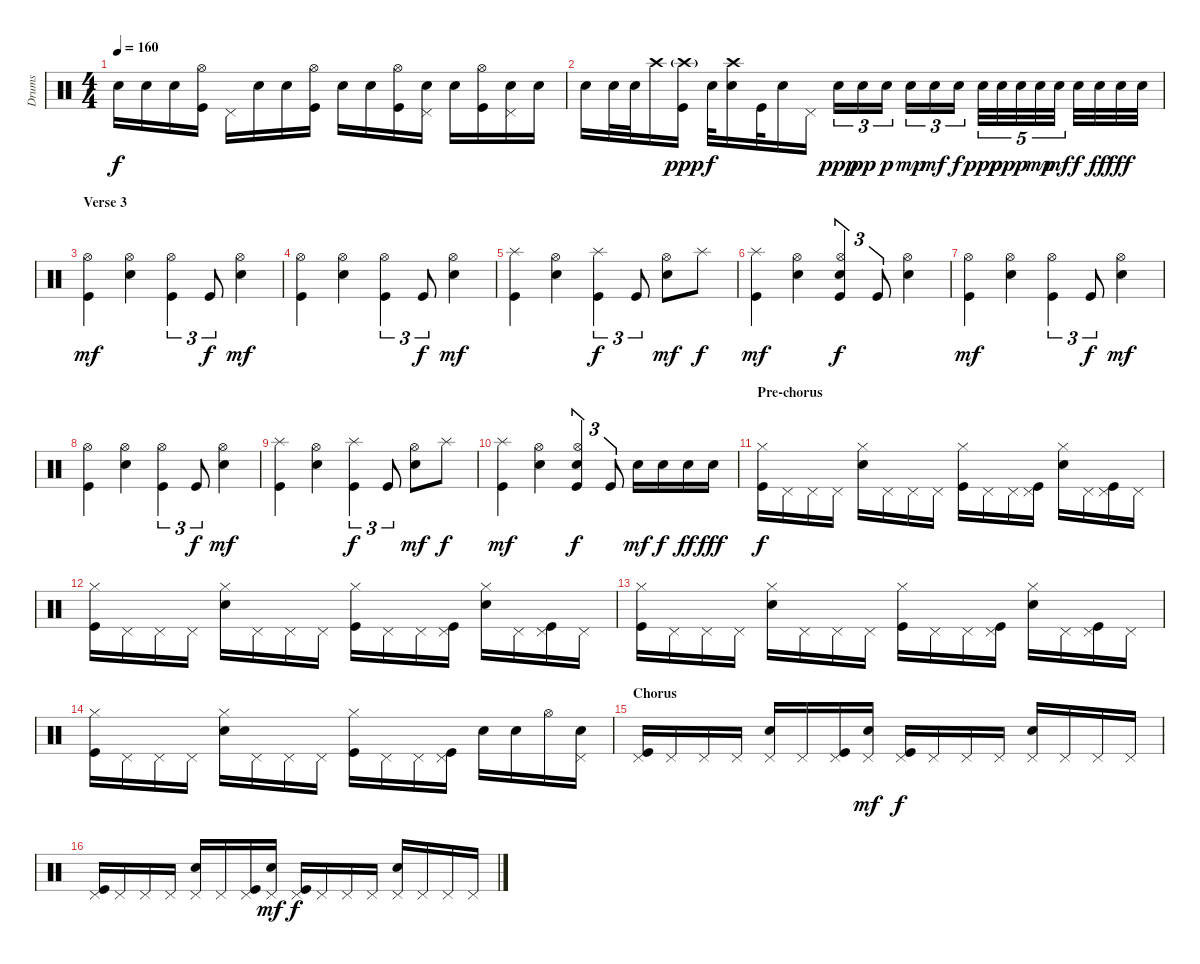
\track ("Drums" "Drums") {instrument percussion}
\staff {score}
\articulation defaults
\ts (4 4)
\tempo 160
\clef neutral
\ks c "Electric Snare (hit)".16{dy f} "Electric Snare (hit)".16 "Electric Snare (hit)".16
("Hi-Hat (open)" "Kick (hit)").16 "Pedal Hi-Hat (hit)".16 "Electric Snare (hit)".16 "Electric Snare (hit)".16 ("Hi-Hat (open)" "Kick (hit)").16 "Electric Snare (hit)".16 "Electric Snare (hit)".16 ("Hi-Hat (open)" "Kick (hit)").16 ("Pedal Hi-Hat (hit)" "Electric Snare (hit)").16 "Electric Snare (hit)".16 ("Hi-Hat (open)" "Kick (hit)").16 ("Pedal Hi-Hat (hit)" "Electric Snare (hit)").16 "Electric Snare (hit)".16 |
"Electric Snare (hit)".16 "Electric Snare (hit)".32 "Electric Snare (hit)".32 "Crash high (hit)".16 ("Crash high (hit)"{g} "Kick (hit)").16{dy ppp} "Electric Snare (hit)".32{dy f} ("Crash high (hit)" "Electric Snare (hit)").16 "Kick (hit)".32 "Electric Snare (hit)".16 "Pedal Hi-Hat (hit)".16 "Electric Snare (hit)".16{tu (3 2) dy ppp} "Electric Snare (hit)".16{tu (3 2) dy pp} "Electric Snare (hit)".16{tu (3 2) dy p} "Electric Snare (hit)".16{tu (3 2) dy mp} "Electric Snare (hit)".16{tu (3 2) dy mf} "Electric Snare (hit)".16{tu (3 2) dy f} "Electric Snare (hit)".32{tu (5 4) dy ppp} "Electric Snare (hit)".32{tu (5 4) dy pp} "Electric Snare (hit)".32{tu (5 4) dy p} "Electric Snare (hit)".32{tu (5 4) dy mp} "Electric Snare (hit)".32{tu (5 4) dy mf} "Electric Snare (hit)".32{dy f} "Electric Snare (hit)".32{dy ff} "Electric Snare (hit)".32{dy fff} "Electric Snare (hit)".32 |
\section ("" "Verse 3")
("Hi-Hat (open)" "Kick (hit)").4{dy mf} ("Hi-Hat (open)" "Electric Snare (hit)").4 ("Hi-Hat (open)" "Kick (hit)").4{tu (3 2)} "Kick (hit)".8{tu (3 2) dy f} ("Hi-Hat (open)" "Electric Snare (hit)").4{dy mf} |
("Hi-Hat (open)" "Kick (hit)").4 ("Hi-Hat (open)" "Electric Snare (hit)").4 ("Hi-Hat (open)" "Kick (hit)").4{tu (3 2)} "Kick (hit)".8{tu (3 2) dy f} ("Hi-Hat (open)" "Electric Snare (hit)").4{dy mf} |
("Splash (hit)" "Kick (hit)").4 ("Hi-Hat (open)" "Electric Snare (hit)").4 ("Splash (hit)" "Kick (hit)").4{tu (3 2) dy f} "Kick (hit)".8{tu (3 2)} ("Hi-Hat (open)" "Electric Snare (hit)").8{dy mf} "Splash (hit)".8{dy f} |
("Splash (hit)" "Kick (hit)").4{dy mf} ("Hi-Hat (open)" "Electric Snare (hit)").4 ("Hi-Hat (open)" "Electric Snare (hit)" "Kick (hit)").4{tu (3 2) dy f} "Kick (hit)".8{tu (3 2)} ("Hi-Hat (open)" "Electric Snare (hit)").4 |
("Hi-Hat (open)" "Kick (hit)").4{dy mf} ("Hi-Hat (open)" "Electric Snare (hit)").4 ("Hi-Hat (open)" "Kick (hit)").4{tu (3 2)} "Kick (hit)".8{tu (3 2) dy f} ("Hi-Hat (open)" "Electric Snare (hit)").4{dy mf} |
("Hi-Hat (open)" "Kick (hit)").4 ("Hi-Hat (open)" "Electric Snare (hit)").4 ("Hi-Hat (open)" "Kick (hit)").4{tu (3 2)} "Kick (hit)".8{tu (3 2) dy f} ("Hi-Hat (open)" "Electric Snare (hit)").4{dy mf} |
("Splash (hit)" "Kick (hit)").4 ("Hi-Hat (open)" "Electric Snare (hit)").4 ("Splash (hit)" "Kick (hit)").4{tu (3 2) dy f} "Kick (hit)".8{tu (3 2)} ("Hi-Hat (open)" "Electric Snare (hit)").8{dy mf} "Splash (hit)".8{dy f} |
("Splash (hit)" "Kick (hit)").4{dy mf} ("Hi-Hat (open)" "Electric Snare (hit)").4 ("Hi-Hat (open)" "Electric Snare (hit)" "Kick (hit)").4{tu (3 2) dy f} "Kick (hit)".8{tu (3 2)} "Electric Snare (hit)".16{dy mf} "Electric Snare (hit)".16{dy f} "Electric Snare (hit)".16{dy ff} "Electric Snare (hit)".16{dy fff} |
\section ("" "Pre-chorus")
("Hi-Hat (closed)" "Kick (hit)").16{dy f} "Pedal Hi-Hat (hit)".16 "Pedal Hi-Hat (hit)".16 "Pedal Hi-Hat (hit)".16 ("Hi-Hat (closed)" "Electric Snare (hit)").16 "Pedal Hi-Hat (hit)".16 "Pedal Hi-Hat (hit)".16 "Pedal Hi-Hat (hit)".16 ("Hi-Hat (closed)" "Kick (hit)").16 "Pedal Hi-Hat (hit)".16 "Pedal Hi-Hat (hit)".16 ("Pedal Hi-Hat (hit)" "Kick (hit)").16 ("Hi-Hat (closed)" "Electric Snare (hit)").16 "Pedal Hi-Hat (hit)".16 ("Pedal Hi-Hat (hit)" "Kick (hit)").16 "Pedal Hi-Hat (hit)".16 |
("Hi-Hat (closed)" "Kick (hit)").16 "Pedal Hi-Hat (hit)".16 "Pedal Hi-Hat (hit)".16 "Pedal Hi-Hat (hit)".16 ("Hi-Hat (closed)" "Electric Snare (hit)").16 "Pedal Hi-Hat (hit)".16 "Pedal Hi-Hat (hit)".16 "Pedal Hi-Hat (hit)".16 ("Hi-Hat (closed)" "Kick (hit)").16 "Pedal Hi-Hat (hit)".16 "Pedal Hi-Hat (hit)".16 ("Pedal Hi-Hat (hit)" "Kick (hit)").16 ("Hi-Hat (closed)" "Electric Snare (hit)").16 "Pedal Hi-Hat (hit)".16 ("Pedal Hi-Hat (hit)" "Kick (hit)").16 "Pedal Hi-Hat (hit)".16 |
("Hi-Hat (closed)" "Kick (hit)").16 "Pedal Hi-Hat (hit)".16 "Pedal Hi-Hat (hit)".16 "Pedal Hi-Hat (hit)".16 ("Hi-Hat (closed)" "Electric Snare (hit)").16 "Pedal Hi-Hat (hit)".16 "Pedal Hi-Hat (hit)".16 "Pedal Hi-Hat (hit)".16 ("Hi-Hat (closed)" "Kick (hit)").16 "Pedal Hi-Hat (hit)".16 "Pedal Hi-Hat (hit)".16 ("Pedal Hi-Hat (hit)" "Kick (hit)").16 ("Hi-Hat (closed)" "Electric Snare (hit)").16 "Pedal Hi-Hat (hit)".16 ("Pedal Hi-Hat (hit)" "Kick (hit)").16 "Pedal Hi-Hat (hit)".16 |
("Hi-Hat (closed)" "Kick (hit)").16 "Pedal Hi-Hat (hit)".16 "Pedal Hi-Hat (hit)".16 "Pedal Hi-Hat (hit)".16 ("Hi-Hat (closed)" "Electric Snare (hit)").16 "Pedal Hi-Hat (hit)".16 "Pedal Hi-Hat (hit)".16 "Pedal Hi-Hat (hit)".16 ("Hi-Hat (closed)" "Kick (hit)").16 "Pedal Hi-Hat (hit)".16 "Pedal Hi-Hat (hit)".16 ("Pedal Hi-Hat (hit)" "Kick (hit)").16 "Electric Snare (hit)".16 "Electric Snare (hit)".16 "Hi-Hat (open)".16 ("Pedal Hi-Hat (hit)" "Electric Snare (hit)").16 |
\section ("" "Chorus")
("Pedal Hi-Hat (hit)" "Kick (hit)").16 "Pedal Hi-Hat (hit)".16 "Pedal Hi-Hat (hit)".16 "Pedal Hi-Hat (hit)".16 ("Pedal Hi-Hat (hit)" "Electric Snare (hit)").16 "Pedal Hi-Hat (hit)".16 ("Pedal Hi-Hat (hit)" "Kick (hit)").16 ("Pedal Hi-Hat (hit)" "Electric Snare (hit)").16{dy mf} ("Pedal Hi-Hat (hit)" "Kick (hit)").16{dy f} "Pedal Hi-Hat (hit)".16 "Pedal Hi-Hat (hit)".16 "Pedal Hi-Hat (hit)".16 ("Pedal Hi-Hat (hit)" "Electric Snare (hit)").16 "Pedal Hi-Hat (hit)".16 "Pedal Hi-Hat (hit)".16 "Pedal Hi-Hat (hit)".16 |
("Pedal Hi-Hat (hit)" "Kick (hit)").16 "Pedal Hi-Hat (hit)".16 "Pedal Hi-Hat (hit)".16 "Pedal Hi-Hat (hit)".16 ("Pedal Hi-Hat (hit)" "Electric Snare (hit)").16 "Pedal Hi-Hat (hit)".16 ("Pedal Hi-Hat (hit)" "Kick (hit)").16 ("Pedal Hi-Hat (hit)" "Electric Snare (hit)").16{dy mf} ("Pedal Hi-Hat (hit)" "Kick (hit)").16{dy f} "Pedal Hi-Hat (hit)".16 "Pedal Hi-Hat (hit)".16 "Pedal Hi-Hat (hit)".16 ("Pedal Hi-Hat (hit)" "Electric Snare (hit)").16 "Pedal Hi-Hat (hit)".16 "Pedal Hi-Hat (hit)".16 "Pedal Hi-Hat (hit)".16
